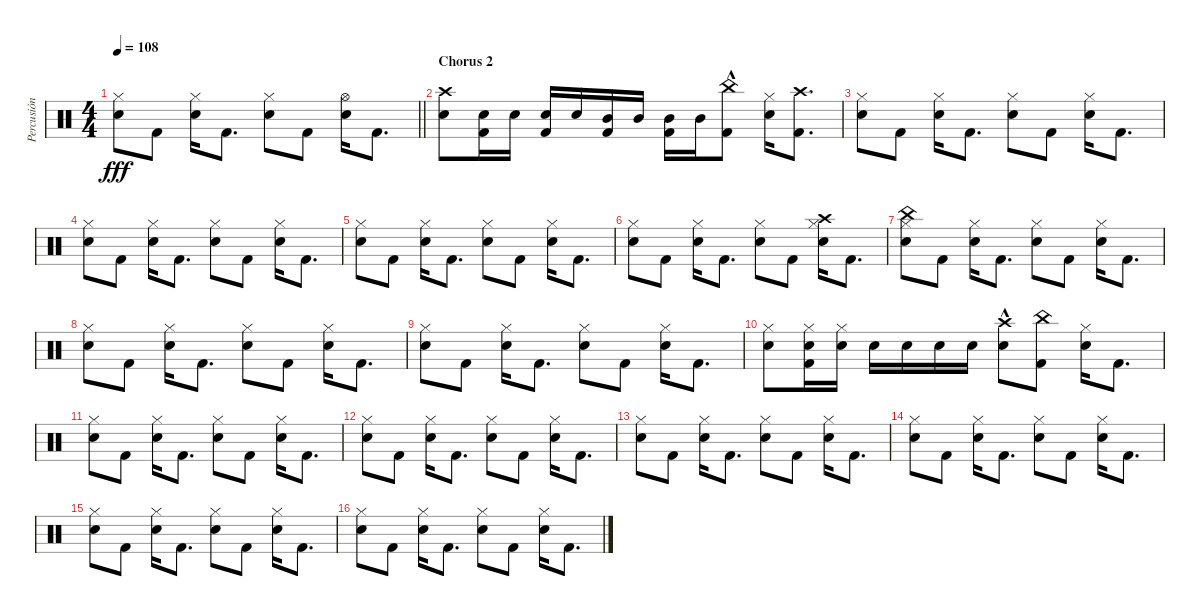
\track ("Percusión" "Percusión") {instrument percussion}
\staff {score}
\articulation defaults
\ts (4 4)
\tempo 108
\clef neutral
\barLineRight lightlight
\ks c
("Snare (hit) 2" "Hi-Hat (closed)").8{dy fff} "Kick (hit) 2".8 ("Snare (hit) 2" "Hi-Hat (closed)").16 "Kick (hit) 2".8{d} ("Snare (hit) 2" "Hi-Hat (closed)").8 "Kick (hit) 2".8 ("Snare (hit) 2" "Hi-Hat (open)").16 "Kick (hit) 2".8{d} |
\section ("" "Chorus 2")
("Snare (hit) 2" "Crash high (hit)").8 ("Snare (hit) 2" "Kick (hit) 2").16 "Snare (hit) 2".16 ("Snare (hit) 2" "Kick (hit) 2").16 "Snare (hit) 2".16 ("Mid Tom (hit)" "Kick (hit) 2").16 "Mid Tom (hit)".16 ("Mid Tom (hit)" "Kick (hit) 2").16 "Mid Tom (hit)".16 ("China (hit)"{hac} "Kick (hit) 2").8 ("Snare (hit) 2" "Hi-Hat (closed)").16 ("Kick (hit) 2" "Crash high (hit)").8{d} |
("Snare (hit) 2" "Hi-Hat (closed)").8 "Kick (hit) 2".8 ("Snare (hit) 2" "Hi-Hat (closed)").16 "Kick (hit) 2".8{d} ("Snare (hit) 2" "Hi-Hat (closed)").8 "Kick (hit) 2".8 ("Snare (hit) 2" "Hi-Hat (closed)").16 "Kick (hit) 2".8{d} |
("Snare (hit) 2" "Hi-Hat (closed)").8 "Kick (hit) 2".8 ("Snare (hit) 2" "Hi-Hat (closed)").16 "Kick (hit) 2".8{d} ("Snare (hit) 2" "Hi-Hat (closed)").8 "Kick (hit) 2".8 ("Snare (hit) 2" "Hi-Hat (closed)").16 "Kick (hit) 2".8{d} |
("Snare (hit) 2" "Hi-Hat (closed)").8 "Kick (hit) 2".8 ("Snare (hit) 2" "Hi-Hat (closed)").16 "Kick (hit) 2".8{d} ("Snare (hit) 2" "Hi-Hat (closed)").8 "Kick (hit) 2".8 ("Snare (hit) 2" "Hi-Hat (closed)").16 "Kick (hit) 2".8{d} |
("Snare (hit) 2" "Hi-Hat (closed)").8 "Kick (hit) 2".8 ("Snare (hit) 2" "Hi-Hat (closed)").16 "Kick (hit) 2".8{d} ("Snare (hit) 2" "Hi-Hat (closed)").8 "Kick (hit) 2".8 ("Snare (hit) 2" "Hi-Hat (closed)" "Crash high (hit)").16 "Kick (hit) 2".8{d} |
("Snare (hit) 2" "Hi-Hat (closed)" "China (hit)").8 "Kick (hit) 2".8 ("Snare (hit) 2" "Hi-Hat (closed)").16 "Kick (hit) 2".8{d} ("Snare (hit) 2" "Hi-Hat (closed)").8 "Kick (hit) 2".8 ("Snare (hit) 2" "Hi-Hat (closed)").16 "Kick (hit) 2".8{d} |
("Snare (hit) 2" "Hi-Hat (closed)").8 "Kick (hit) 2".8 ("Snare (hit) 2" "Hi-Hat (closed)").16 "Kick (hit) 2".8{d} ("Snare (hit) 2" "Hi-Hat (closed)").8 "Kick (hit) 2".8 ("Snare (hit) 2" "Hi-Hat (closed)").16 "Kick (hit) 2".8{d} |
("Snare (hit) 2" "Hi-Hat (closed)").8 "Kick (hit) 2".8 ("Snare (hit) 2" "Hi-Hat (closed)").16 "Kick (hit) 2".8{d} ("Snare (hit) 2" "Hi-Hat (closed)").8 "Kick (hit) 2".8 ("Snare (hit) 2" "Hi-Hat (closed)").16 "Kick (hit) 2".8{d} |
("Snare (hit) 2" "Hi-Hat (closed)").8 ("Snare (hit) 2" "Hi-Hat (closed)" "Kick (hit) 2").16 ("Snare (hit) 2" "Hi-Hat (closed)").16 "Snare (hit) 2".16 "Snare (hit) 2".16 "Snare (hit) 2".16 "Snare (hit) 2".16 ("Snare (hit) 2" "Crash high (hit)"{hac}).8 ("China (hit)" "Kick (hit) 2").8 ("Snare (hit) 2" "Hi-Hat (closed)").16 "Kick (hit) 2".8{d} |
("Snare (hit) 2" "Hi-Hat (closed)").8 "Kick (hit) 2".8 ("Snare (hit) 2" "Hi-Hat (closed)").16 "Kick (hit) 2".8{d} ("Snare (hit) 2" "Hi-Hat (closed)").8 "Kick (hit) 2".8 ("Snare (hit) 2" "Hi-Hat (closed)").16 "Kick (hit) 2".8{d} |
("Snare (hit) 2" "Hi-Hat (closed)").8 "Kick (hit) 2".8 ("Snare (hit) 2" "Hi-Hat (closed)").16 "Kick (hit) 2".8{d} ("Snare (hit) 2" "Hi-Hat (closed)").8 "Kick (hit) 2".8 ("Snare (hit) 2" "Hi-Hat (closed)").16 "Kick (hit) 2".8{d} |
("Snare (hit) 2" "Hi-Hat (closed)").8 "Kick (hit) 2".8 ("Snare (hit) 2" "Hi-Hat (closed)").16 "Kick (hit) 2".8{d} ("Snare (hit) 2" "Hi-Hat (closed)").8 "Kick (hit) 2".8 ("Snare (hit) 2" "Hi-Hat (closed)").16 "Kick (hit) 2".8{d} |
("Snare (hit) 2" "Hi-Hat (closed)").8 "Kick (hit) 2".8 ("Snare (hit) 2" "Hi-Hat (closed)").16 "Kick (hit) 2".8{d} ("Snare (hit) 2" "Hi-Hat (closed)").8 "Kick (hit) 2".8 ("Snare (hit) 2" "Hi-Hat (closed)").16 "Kick (hit) 2".8{d} |
("Snare (hit) 2" "Hi-Hat (closed)").8 "Kick (hit) 2".8 ("Snare (hit) 2" "Hi-Hat (closed)").16 "Kick (hit) 2".8{d} ("Snare (hit) 2" "Hi-Hat (closed)").8 "Kick (hit) 2".8 ("Snare (hit) 2" "Hi-Hat (closed)").16 "Kick (hit) 2".8{d} |
("Snare (hit) 2" "Hi-Hat (closed)").8 "Kick (hit) 2".8 ("Snare (hit) 2" "Hi-Hat (closed)").16 "Kick (hit) 2".8{d} ("Snare (hit) 2" "Hi-Hat (closed)").8 "Kick (hit) 2".8 ("Snare (hit) 2" "Hi-Hat (closed)").16 "Kick (hit) 2".8{d}
